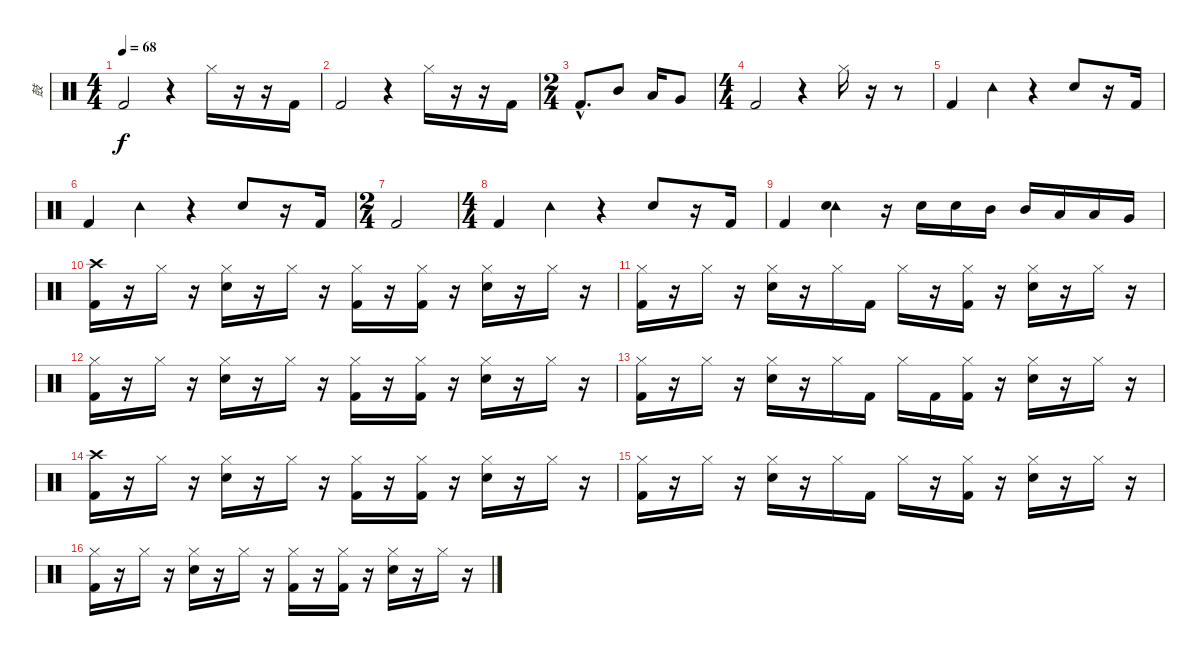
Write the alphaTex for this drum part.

\track ("鼓" "鼓") {instrument percussion}
\staff {score}
\articulation defaults
\ts (4 4)
\tempo 68
\clef neutral
\ks c "Kick (hit) 2".2{dy f}
r.4 "Hi-Hat (closed)".16 r.16 r.16 "Kick (hit) 2".16 |
"Kick (hit) 2".2 r.4 "Hi-Hat (closed)".16 r.16 r.16 "Kick (hit) 2".16 |
\ts (2 4)
"Kick (hit) 2"{hac}.8{d} "Mid Tom (hit)".8 "Low Tom (hit)".16 "Very Low Tom (hit)".8 |
\ts (4 4)
"Kick (hit) 2".2 r.4 "Hi-Hat (closed)".16 r.16 r.8 |
"Kick (hit) 2".4 "Tambourine (hit)".4 r.4 "Electric Snare (hit)".8 r.16 "Kick (hit) 2".16 |
"Kick (hit) 2".4 "Tambourine (hit)".4 r.4 "Electric Snare (hit)".8 r.16 "Kick (hit) 2".16 |
\ts (2 4)
"Kick (hit) 2".2 |
\ts (4 4)
"Kick (hit) 2".4 "Tambourine (hit)".4 r.4 "Electric Snare (hit)".8 r.16 "Kick (hit) 2".16 |
"Kick (hit) 2".4 ("Tambourine (hit)" "Electric Snare (hit)").4 r.16 "Electric Snare (hit)".16 "Electric Snare (hit)".16 "Mid Tom (hit)".16 "Mid Tom (hit)".16 "Low Tom (hit)".16 "Low Tom (hit)".16 "Very Low Tom (hit)".16 |
("Crash high (hit)" "Kick (hit) 2").16 r.16 "Hi-Hat (closed)".16 r.16 ("Hi-Hat (closed)" "Electric Snare (hit)").16 r.16 "Hi-Hat (closed)".16 r.16 ("Hi-Hat (closed)" "Kick (hit) 2").16 r.16 ("Hi-Hat (closed)" "Kick (hit) 2").16 r.16 ("Hi-Hat (closed)" "Electric Snare (hit)").16 r.16 "Hi-Hat (closed)".16 r.16 |
("Hi-Hat (closed)" "Kick (hit) 2").16 r.16 "Hi-Hat (closed)".16 r.16 ("Hi-Hat (closed)" "Electric Snare (hit)").16 r.16 "Hi-Hat (closed)".16 "Kick (hit) 2".16 "Hi-Hat (closed)".16 r.16 ("Hi-Hat (closed)" "Kick (hit) 2").16 r.16 ("Hi-Hat (closed)" "Electric Snare (hit)").16 r.16 "Hi-Hat (closed)".16 r.16 |
("Hi-Hat (closed)" "Kick (hit) 2").16 r.16 "Hi-Hat (closed)".16 r.16 ("Hi-Hat (closed)" "Electric Snare (hit)").16 r.16 "Hi-Hat (closed)".16 r.16 ("Hi-Hat (closed)" "Kick (hit) 2").16 r.16 ("Hi-Hat (closed)" "Kick (hit) 2").16 r.16 ("Hi-Hat (closed)" "Electric Snare (hit)").16 r.16 "Hi-Hat (closed)".16 r.16 |
("Hi-Hat (closed)" "Kick (hit) 2").16 r.16 "Hi-Hat (closed)".16 r.16 ("Hi-Hat (closed)" "Electric Snare (hit)").16 r.16 "Hi-Hat (closed)".16 "Kick (hit) 2".16 "Hi-Hat (closed)".16 "Kick (hit) 2".16 ("Hi-Hat (closed)" "Kick (hit) 2").16 r.16 ("Hi-Hat (closed)" "Electric Snare (hit)").16 r.16 "Hi-Hat (closed)".16 r.16 |
("Crash high (hit)" "Kick (hit) 2").16 r.16 "Hi-Hat (closed)".16 r.16 ("Hi-Hat (closed)" "Electric Snare (hit)").16 r.16 "Hi-Hat (closed)".16 r.16 ("Hi-Hat (closed)" "Kick (hit) 2").16 r.16 ("Hi-Hat (closed)" "Kick (hit) 2").16 r.16 ("Hi-Hat (closed)" "Electric Snare (hit)").16 r.16 "Hi-Hat (closed)".16 r.16 |
("Hi-Hat (closed)" "Kick (hit) 2").16 r.16 "Hi-Hat (closed)".16 r.16 ("Hi-Hat (closed)" "Electric Snare (hit)").16 r.16 "Hi-Hat (closed)".16 "Kick (hit) 2".16 "Hi-Hat (closed)".16 r.16 ("Hi-Hat (closed)" "Kick (hit) 2").16 r.16 ("Hi-Hat (closed)" "Electric Snare (hit)").16 r.16 "Hi-Hat (closed)".16 r.16 |
("Hi-Hat (closed)" "Kick (hit) 2").16 r.16 "Hi-Hat (closed)".16 r.16 ("Hi-Hat (closed)" "Electric Snare (hit)").16 r.16 "Hi-Hat (closed)".16 r.16 ("Hi-Hat (closed)" "Kick (hit) 2").16 r.16 ("Hi-Hat (closed)" "Kick (hit) 2").16 r.16 ("Hi-Hat (closed)" "Electric Snare (hit)").16 r.16 "Hi-Hat (closed)".16 r.16
